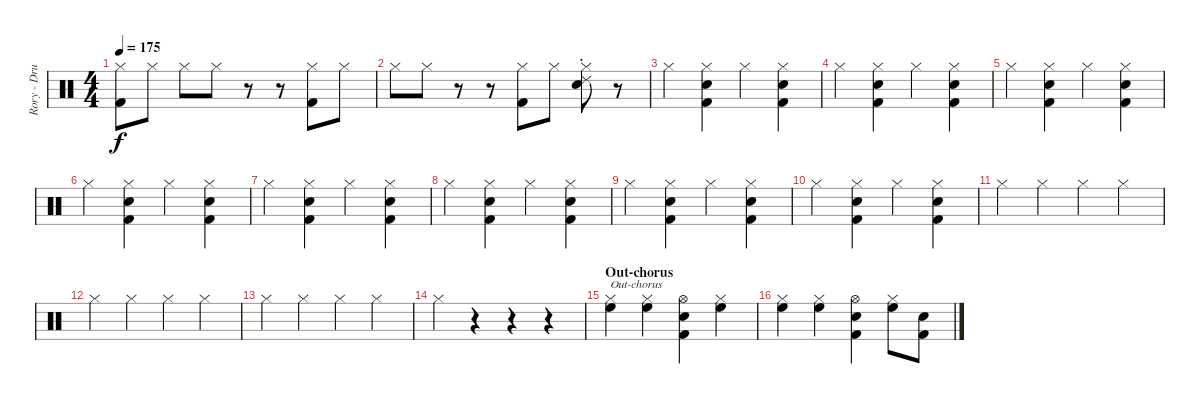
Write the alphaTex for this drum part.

\track ("Rory - Drums" "Rory - Dru") {instrument percussion}
\staff {score}
\articulation defaults
\ts (4 4)
\tempo 175
\clef neutral
\ks c
("Hi-Hat (closed)" "Kick (hit) 2").8{dy f} "Hi-Hat (closed)".8 "Hi-Hat (closed)".8 "Hi-Hat (closed)".8 r.8 r.8 ("Hi-Hat (closed)" "Kick (hit) 2").8 "Hi-Hat (closed)".8 |
"Hi-Hat (closed)".8 "Hi-Hat (closed)".8 r.8 r.8 ("Hi-Hat (closed)" "Kick (hit) 2").8 "Hi-Hat (closed)".8 ("Hi-Hat (closed)" "Ride (choke) 2" "Snare (hit) 2").8 r.8 |
"Hi-Hat (closed)".4 ("Hi-Hat (closed)" "Kick (hit) 2" "Snare (hit) 2").4 "Hi-Hat (closed)".4 ("Hi-Hat (closed)" "Kick (hit) 2" "Snare (hit) 2").4 |
"Hi-Hat (closed)".4 ("Hi-Hat (closed)" "Kick (hit) 2" "Snare (hit) 2").4 "Hi-Hat (closed)".4 ("Hi-Hat (closed)" "Kick (hit) 2" "Snare (hit) 2").4 |
"Hi-Hat (closed)".4 ("Hi-Hat (closed)" "Kick (hit) 2" "Snare (hit) 2").4 "Hi-Hat (closed)".4 ("Hi-Hat (closed)" "Kick (hit) 2" "Snare (hit) 2").4 |
"Hi-Hat (closed)".4 ("Hi-Hat (closed)" "Kick (hit) 2" "Snare (hit) 2").4 "Hi-Hat (closed)".4 ("Hi-Hat (closed)" "Kick (hit) 2" "Snare (hit) 2").4 |
"Hi-Hat (closed)".4 ("Hi-Hat (closed)" "Kick (hit) 2" "Snare (hit) 2").4 "Hi-Hat (closed)".4 ("Hi-Hat (closed)" "Kick (hit) 2" "Snare (hit) 2").4 |
"Hi-Hat (closed)".4 ("Hi-Hat (closed)" "Kick (hit) 2" "Snare (hit) 2").4 "Hi-Hat (closed)".4 ("Hi-Hat (closed)" "Kick (hit) 2" "Snare (hit) 2").4 |
"Hi-Hat (closed)".4 ("Hi-Hat (closed)" "Kick (hit) 2" "Snare (hit) 2").4 "Hi-Hat (closed)".4 ("Hi-Hat (closed)" "Kick (hit) 2" "Snare (hit) 2").4 |
"Hi-Hat (closed)".4 ("Hi-Hat (closed)" "Kick (hit) 2" "Snare (hit) 2").4 "Hi-Hat (closed)".4 ("Hi-Hat (closed)" "Kick (hit) 2" "Snare (hit) 2").4 |
"Hi-Hat (closed)".4 "Hi-Hat (closed)".4 "Hi-Hat (closed)".4 "Hi-Hat (closed)".4 |
"Hi-Hat (closed)".4 "Hi-Hat (closed)".4 "Hi-Hat (closed)".4 "Hi-Hat (closed)".4 |
"Hi-Hat (closed)".4 "Hi-Hat (closed)".4 "Hi-Hat (closed)".4 "Hi-Hat (closed)".4 |
"Hi-Hat (closed)".4 r.4 r.4 r.4 |
\section ("" "Out-chorus")
("Hi-Hat (closed)" "High Floor Tom (hit)").4{txt "Out-chorus"} ("Hi-Hat (closed)" "High Floor Tom (hit)").4 ("Kick (hit) 2" "Hi-Hat (open)" "Snare (hit) 2").4 ("Hi-Hat (closed)" "High Floor Tom (hit)").4 |
("Hi-Hat (closed)" "High Floor Tom (hit)").4 ("Hi-Hat (closed)" "High Floor Tom (hit)").4 ("Kick (hit) 2" "Hi-Hat (open)" "Snare (hit) 2").4 ("Hi-Hat (closed)" "High Floor Tom (hit)").8 ("Kick (hit) 2" "Snare (hit) 2").8
